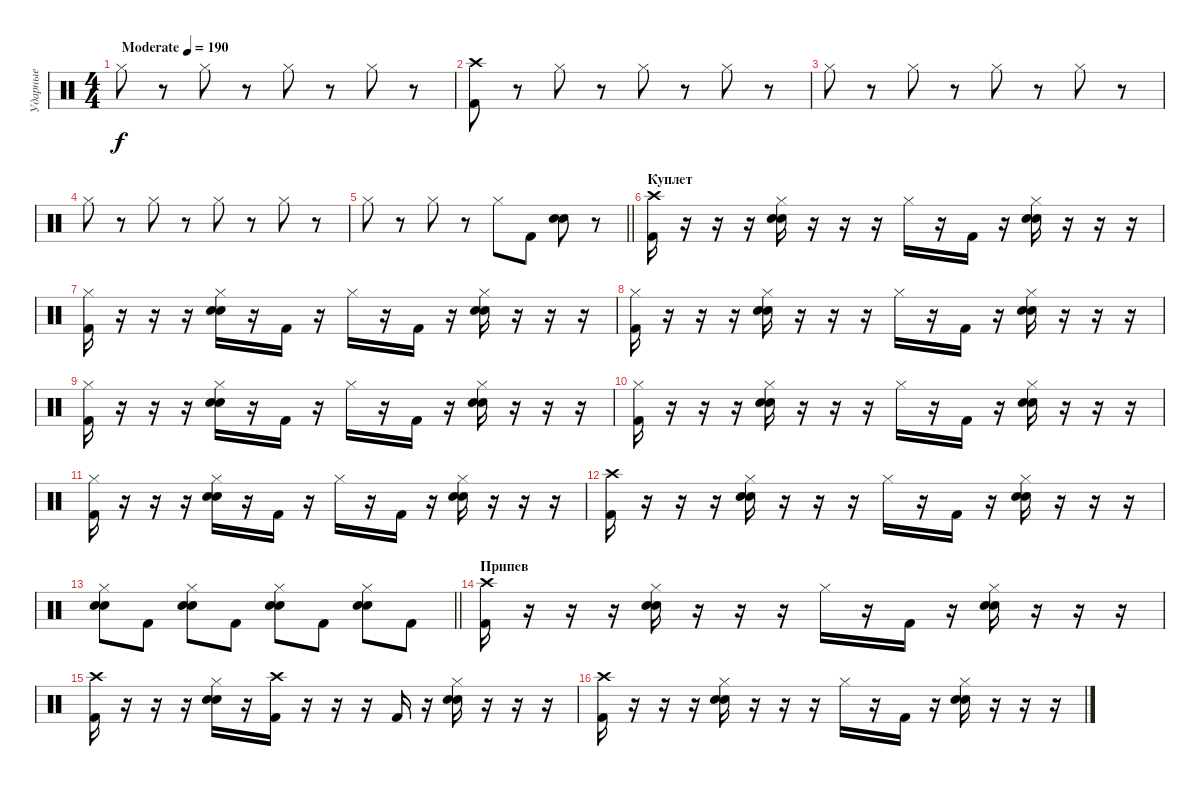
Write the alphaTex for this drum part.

\track ("Ударные" "Ударные") {instrument percussion}
\staff {score}
\articulation defaults
\ts (4 4)
\tempo (190 "Moderate")
\clef neutral
\ks c "Hi-Hat (closed)".8{dy f}
r.8 "Hi-Hat (closed)".8 r.8 "Hi-Hat (closed)".8 r.8 "Hi-Hat (closed)".8 r.8 |
("Kick (hit) 2" "Crash high (hit)").8 r.8 "Hi-Hat (closed)".8 r.8 "Hi-Hat (closed)".8 r.8 "Hi-Hat (closed)".8 r.8 |
"Hi-Hat (closed)".8 r.8 "Hi-Hat (closed)".8 r.8 "Hi-Hat (closed)".8 r.8 "Hi-Hat (closed)".8 r.8 |
"Hi-Hat (closed)".8 r.8 "Hi-Hat (closed)".8 r.8 "Hi-Hat (closed)".8 r.8 "Hi-Hat (closed)".8 r.8 |
\barLineRight lightlight "Hi-Hat (closed)".8
r.8 "Hi-Hat (closed)".8 r.8 "Hi-Hat (closed)".8 "Kick (hit) 2".8 ("Snare (hit) 2" "Electric Snare (hit)").8 r.8 |
\section ("" "Куплет")
("Kick (hit) 2" "Crash high (hit)").16 r.16 r.16 r.16 ("Snare (hit) 2" "Electric Snare (hit)" "Hi-Hat (closed)").16 r.16 r.16 r.16 "Hi-Hat (closed)".16 r.16 "Kick (hit) 2".16 r.16 ("Snare (hit) 2" "Electric Snare (hit)" "Hi-Hat (closed)").16 r.16 r.16 r.16 |
("Kick (hit) 2" "Hi-Hat (closed)").16 r.16 r.16 r.16 ("Snare (hit) 2" "Electric Snare (hit)" "Hi-Hat (closed)").16 r.16 "Kick (hit) 2".16 r.16 "Hi-Hat (closed)".16 r.16 "Kick (hit) 2".16 r.16 ("Snare (hit) 2" "Electric Snare (hit)" "Hi-Hat (closed)").16 r.16 r.16 r.16 |
("Kick (hit) 2" "Hi-Hat (closed)").16 r.16 r.16 r.16 ("Snare (hit) 2" "Electric Snare (hit)" "Hi-Hat (closed)").16 r.16 r.16 r.16 "Hi-Hat (closed)".16 r.16 "Kick (hit) 2".16 r.16 ("Snare (hit) 2" "Electric Snare (hit)" "Hi-Hat (closed)").16 r.16 r.16 r.16 |
("Kick (hit) 2" "Hi-Hat (closed)").16 r.16 r.16 r.16 ("Snare (hit) 2" "Electric Snare (hit)" "Hi-Hat (closed)").16 r.16 "Kick (hit) 2".16 r.16 "Hi-Hat (closed)".16 r.16 "Kick (hit) 2".16 r.16 ("Snare (hit) 2" "Electric Snare (hit)" "Hi-Hat (closed)").16 r.16 r.16 r.16 |
("Kick (hit) 2" "Hi-Hat (closed)").16 r.16 r.16 r.16 ("Snare (hit) 2" "Electric Snare (hit)" "Hi-Hat (closed)").16 r.16 r.16 r.16 "Hi-Hat (closed)".16 r.16 "Kick (hit) 2".16 r.16 ("Snare (hit) 2" "Electric Snare (hit)" "Hi-Hat (closed)").16 r.16 r.16 r.16 |
("Kick (hit) 2" "Hi-Hat (closed)").16 r.16 r.16 r.16 ("Snare (hit) 2" "Electric Snare (hit)" "Hi-Hat (closed)").16 r.16 "Kick (hit) 2".16 r.16 "Hi-Hat (closed)".16 r.16 "Kick (hit) 2".16 r.16 ("Snare (hit) 2" "Electric Snare (hit)" "Hi-Hat (closed)").16 r.16 r.16 r.16 |
("Kick (hit) 2" "Crash high (hit)").16 r.16 r.16 r.16 ("Snare (hit) 2" "Electric Snare (hit)" "Hi-Hat (closed)").16 r.16 r.16 r.16 "Hi-Hat (closed)".16 r.16 "Kick (hit) 2".16 r.16 ("Snare (hit) 2" "Electric Snare (hit)" "Hi-Hat (closed)").16 r.16 r.16 r.16 |
\barLineRight lightlight
("Snare (hit) 2" "Electric Snare (hit)" "Hi-Hat (closed)").8 "Kick (hit) 2".8 ("Snare (hit) 2" "Electric Snare (hit)" "Hi-Hat (closed)").8 "Kick (hit) 2".8 ("Snare (hit) 2" "Electric Snare (hit)" "Hi-Hat (closed)").8 "Kick (hit) 2".8 ("Snare (hit) 2" "Electric Snare (hit)" "Hi-Hat (closed)").8 "Kick (hit) 2".8 |
\section ("" "Припев")
("Kick (hit) 2" "Crash high (hit)").16 r.16 r.16 r.16 ("Snare (hit) 2" "Electric Snare (hit)" "Hi-Hat (closed)").16 r.16 r.16 r.16 "Hi-Hat (closed)".16 r.16 "Kick (hit) 2".16 r.16 ("Snare (hit) 2" "Electric Snare (hit)" "Hi-Hat (closed)").16 r.16 r.16 r.16 |
("Kick (hit) 2" "Crash high (hit)").16 r.16 r.16 r.16 ("Snare (hit) 2" "Electric Snare (hit)" "Hi-Hat (closed)").16 r.16 ("Kick (hit) 2" "Crash high (hit)").16 r.16 r.16 r.16 "Kick (hit) 2".16 r.16 ("Snare (hit) 2" "Electric Snare (hit)" "Hi-Hat (closed)").16 r.16 r.16 r.16 |
("Kick (hit) 2" "Crash high (hit)").16 r.16 r.16 r.16 ("Snare (hit) 2" "Electric Snare (hit)" "Hi-Hat (closed)").16 r.16 r.16 r.16 "Hi-Hat (closed)".16 r.16 "Kick (hit) 2".16 r.16 ("Snare (hit) 2" "Electric Snare (hit)" "Hi-Hat (closed)").16 r.16 r.16 r.16
